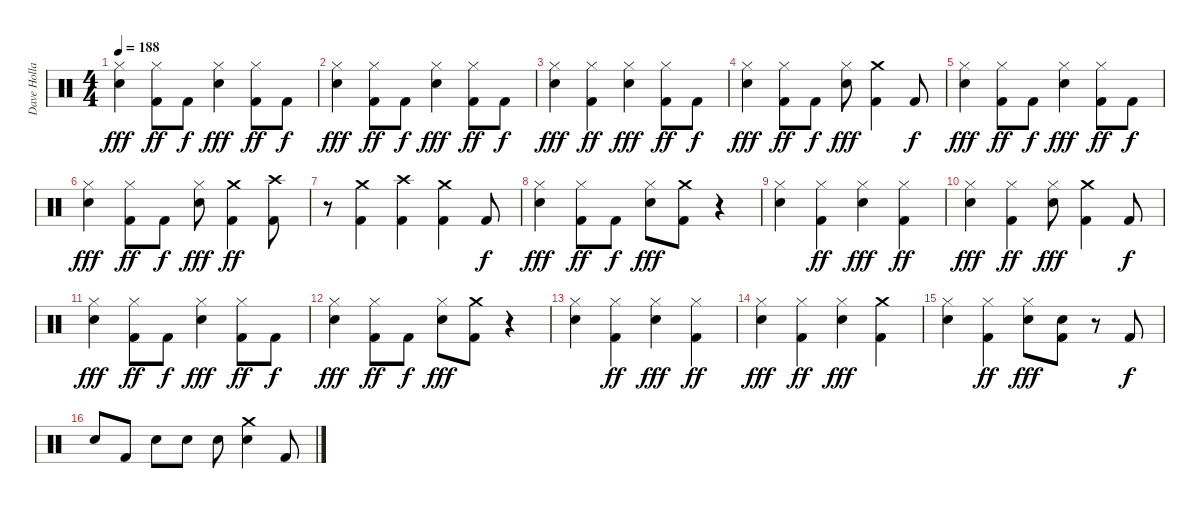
\track ("Dave Holland" "Dave Holla") {instrument percussion}
\staff {score}
\articulation defaults
\ts (4 4)
\tempo 188
\clef neutral
\ks c
("Snare (hit) 2" "Hi-Hat (closed)").4{dy fff} ("Kick (hit) 2" "Hi-Hat (closed)").8{dy ff} "Kick (hit) 2".8{dy f} ("Snare (hit) 2" "Hi-Hat (closed)").4{dy fff} ("Kick (hit) 2" "Hi-Hat (closed)").8{dy ff} "Kick (hit) 2".8{dy f} |
("Snare (hit) 2" "Hi-Hat (closed)").4{dy fff} ("Kick (hit) 2" "Hi-Hat (closed)").8{dy ff} "Kick (hit) 2".8{dy f} ("Snare (hit) 2" "Hi-Hat (closed)").4{dy fff} ("Kick (hit) 2" "Hi-Hat (closed)").8{dy ff} "Kick (hit) 2".8{dy f} |
("Snare (hit) 2" "Hi-Hat (closed)").4{dy fff} ("Kick (hit) 2" "Hi-Hat (closed)").4{dy ff} ("Snare (hit) 2" "Hi-Hat (closed)").4{dy fff} ("Kick (hit) 2" "Hi-Hat (closed)").8{dy ff} "Kick (hit) 2".8{dy f} |
("Snare (hit) 2" "Hi-Hat (closed)").4{dy fff} ("Kick (hit) 2" "Hi-Hat (closed)").8{dy ff} "Kick (hit) 2".8{dy f} ("Snare (hit) 2" "Hi-Hat (closed)").8{dy fff} ("Kick (hit) 2" "Crash medium (hit)").4 "Kick (hit) 2".8{dy f} |
("Snare (hit) 2" "Hi-Hat (closed)").4{dy fff} ("Kick (hit) 2" "Hi-Hat (closed)").8{dy ff} "Kick (hit) 2".8{dy f} ("Snare (hit) 2" "Hi-Hat (closed)").4{dy fff} ("Kick (hit) 2" "Hi-Hat (closed)").8{dy ff} "Kick (hit) 2".8{dy f} |
("Snare (hit) 2" "Hi-Hat (closed)").4{dy fff} ("Kick (hit) 2" "Hi-Hat (closed)").8{dy ff} "Kick (hit) 2".8{dy f} ("Snare (hit) 2" "Hi-Hat (closed)").8{dy fff} ("Crash medium (hit)" "Kick (hit) 2").4{dy ff} ("Crash high (hit)" "Kick (hit) 2").8 |
r.8 ("Crash medium (hit)" "Kick (hit) 2").4 ("Crash high (hit)" "Kick (hit) 2").4 ("Crash medium (hit)" "Kick (hit) 2").4 "Kick (hit) 2".8{dy f} |
("Snare (hit) 2" "Hi-Hat (closed)").4{dy fff} ("Kick (hit) 2" "Hi-Hat (closed)").8{dy ff} "Kick (hit) 2".8{dy f} ("Snare (hit) 2" "Hi-Hat (closed)").8{dy fff} ("Kick (hit) 2" "Crash medium (hit)").8 r.4 |
("Snare (hit) 2" "Hi-Hat (closed)").4 ("Kick (hit) 2" "Hi-Hat (closed)").4{dy ff} ("Snare (hit) 2" "Hi-Hat (closed)").4{dy fff} ("Kick (hit) 2" "Hi-Hat (closed)").4{dy ff} |
("Snare (hit) 2" "Hi-Hat (closed)").4{dy fff} ("Kick (hit) 2" "Hi-Hat (closed)").4{dy ff} ("Snare (hit) 2" "Hi-Hat (closed)").8{dy fff} ("Kick (hit) 2" "Crash medium (hit)").4 "Kick (hit) 2".8{dy f} |
("Snare (hit) 2" "Hi-Hat (closed)").4{dy fff} ("Kick (hit) 2" "Hi-Hat (closed)").8{dy ff} "Kick (hit) 2".8{dy f} ("Snare (hit) 2" "Hi-Hat (closed)").4{dy fff} ("Kick (hit) 2" "Hi-Hat (closed)").8{dy ff} "Kick (hit) 2".8{dy f} |
("Snare (hit) 2" "Hi-Hat (closed)").4{dy fff} ("Kick (hit) 2" "Hi-Hat (closed)").8{dy ff} "Kick (hit) 2".8{dy f} ("Snare (hit) 2" "Hi-Hat (closed)").8{dy fff} ("Kick (hit) 2" "Crash medium (hit)").8 r.4 |
("Snare (hit) 2" "Hi-Hat (closed)").4 ("Kick (hit) 2" "Hi-Hat (closed)").4{dy ff} ("Snare (hit) 2" "Hi-Hat (closed)").4{dy fff} ("Kick (hit) 2" "Hi-Hat (closed)").4{dy ff} |
("Snare (hit) 2" "Hi-Hat (closed)").4{dy fff} ("Kick (hit) 2" "Hi-Hat (closed)").4{dy ff} ("Snare (hit) 2" "Hi-Hat (closed)").4{dy fff} ("Kick (hit) 2" "Crash medium (hit)").4 |
("Snare (hit) 2" "Hi-Hat (closed)").4 ("Kick (hit) 2" "Hi-Hat (closed)").4{dy ff} ("Snare (hit) 2" "Hi-Hat (closed)").8{dy fff} ("Kick (hit) 2" "Snare (hit) 2").8 r.8 "Kick (hit) 2".8{dy f} |
"Snare (hit) 2".8 "Kick (hit) 2".8 "Snare (hit) 2".8 "Snare (hit) 2".8 "Snare (hit) 2".8 ("Snare (hit) 2" "Crash medium (hit)").4 "Kick (hit) 2".8
